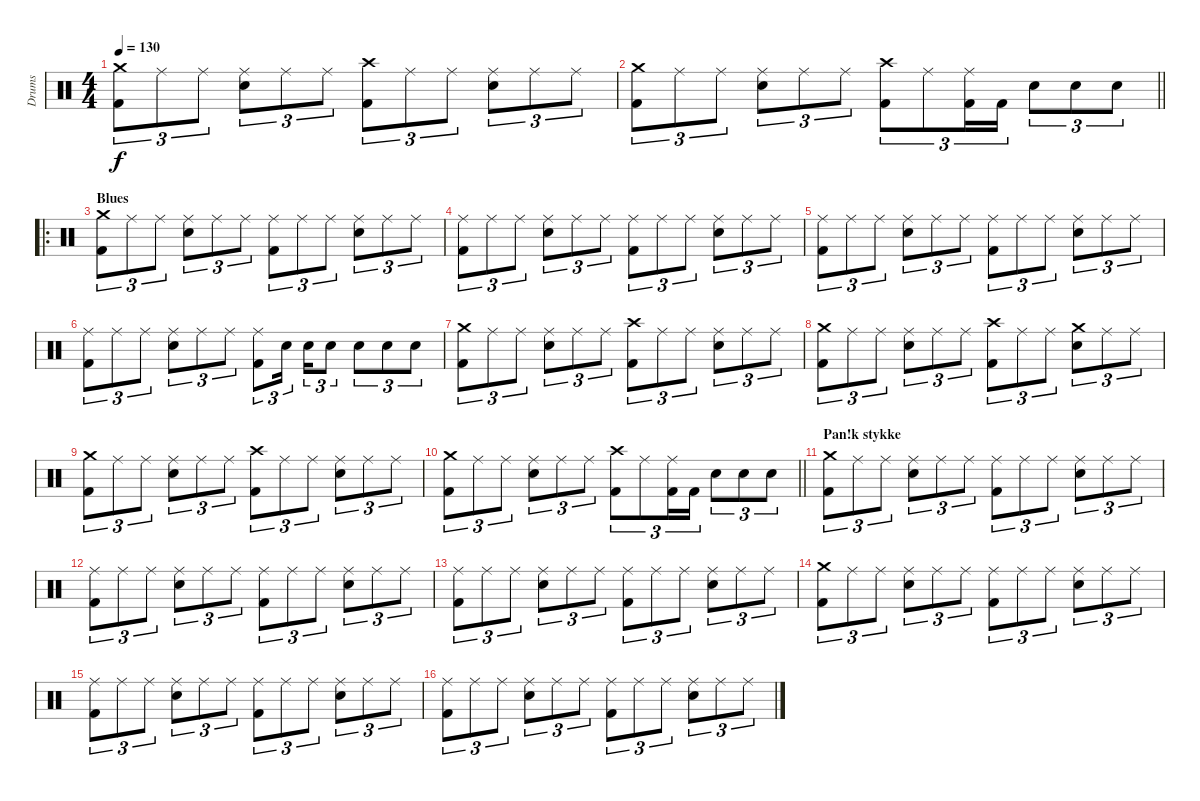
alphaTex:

\track ("Drums" "Drums") {instrument percussion}
\staff {score}
\articulation defaults
\ts (4 4)
\tempo 130
\clef neutral
\ks c
("Crash medium (hit)" "Kick (hit) 2").8{tu (3 2) dy f} "Ride (middle)".8{tu (3 2)} "Ride (middle)".8{tu (3 2)} ("Ride (middle)" "Snare (hit) 2").8{tu (3 2)} "Ride (middle)".8{tu (3 2)} "Ride (middle)".8{tu (3 2)} ("Crash high (hit)" "Kick (hit) 2").8{tu (3 2)} "Ride (middle)".8{tu (3 2)} "Ride (middle)".8{tu (3 2)} ("Ride (middle)" "Snare (hit) 2").8{tu (3 2)} "Ride (middle)".8{tu (3 2)} "Ride (middle)".8{tu (3 2)} |
\barLineRight lightlight
("Crash medium (hit)" "Kick (hit) 2").8{tu (3 2)} "Ride (middle)".8{tu (3 2)} "Ride (middle)".8{tu (3 2)} ("Ride (middle)" "Snare (hit) 2").8{tu (3 2)} "Ride (middle)".8{tu (3 2)} "Ride (middle)".8{tu (3 2)} ("Crash high (hit)" "Kick (hit) 2").8{tu (3 2)} "Ride (middle)".8{tu (3 2)} ("Ride (middle)" "Kick (hit) 2").16{tu (3 2)} "Kick (hit) 2".16{tu (3 2)} "Snare (hit) 2".8{tu (3 2)} "Snare (hit) 2".8{tu (3 2)} "Snare (hit) 2".8{tu (3 2)} |
\ro
\section ("" "Blues")
("Crash medium (hit)" "Kick (hit) 2").8{tu (3 2)} "Ride (middle)".8{tu (3 2)} "Ride (middle)".8{tu (3 2)} ("Ride (middle)" "Snare (hit) 2").8{tu (3 2)} "Ride (middle)".8{tu (3 2)} "Ride (middle)".8{tu (3 2)} ("Ride (middle)" "Kick (hit) 2").8{tu (3 2)} "Ride (middle)".8{tu (3 2)} "Ride (middle)".8{tu (3 2)} ("Ride (middle)" "Snare (hit) 2").8{tu (3 2)} "Ride (middle)".8{tu (3 2)} "Ride (middle)".8{tu (3 2)} |
("Ride (middle)" "Kick (hit) 2").8{tu (3 2)} "Ride (middle)".8{tu (3 2)} "Ride (middle)".8{tu (3 2)} ("Ride (middle)" "Snare (hit) 2").8{tu (3 2)} "Ride (middle)".8{tu (3 2)} "Ride (middle)".8{tu (3 2)} ("Ride (middle)" "Kick (hit) 2").8{tu (3 2)} "Ride (middle)".8{tu (3 2)} "Ride (middle)".8{tu (3 2)} ("Ride (middle)" "Snare (hit) 2").8{tu (3 2)} "Ride (middle)".8{tu (3 2)} "Ride (middle)".8{tu (3 2)} |
("Ride (middle)" "Kick (hit) 2").8{tu (3 2)} "Ride (middle)".8{tu (3 2)} "Ride (middle)".8{tu (3 2)} ("Ride (middle)" "Snare (hit) 2").8{tu (3 2)} "Ride (middle)".8{tu (3 2)} "Ride (middle)".8{tu (3 2)} ("Ride (middle)" "Kick (hit) 2").8{tu (3 2)} "Ride (middle)".8{tu (3 2)} "Ride (middle)".8{tu (3 2)} ("Ride (middle)" "Snare (hit) 2").8{tu (3 2)} "Ride (middle)".8{tu (3 2)} "Ride (middle)".8{tu (3 2)} |
("Ride (middle)" "Kick (hit) 2").8{tu (3 2)} "Ride (middle)".8{tu (3 2)} "Ride (middle)".8{tu (3 2)} ("Ride (middle)" "Snare (hit) 2").8{tu (3 2)} "Ride (middle)".8{tu (3 2)} "Ride (middle)".8{tu (3 2)} ("Ride (middle)" "Kick (hit) 2").8{tu (3 2)} "Snare (hit) 2".16{tu (3 2) beam splitsecondary} "Snare (hit) 2".16{tu (3 2)} "Snare (hit) 2".8{tu (3 2)} "Snare (hit) 2".8{tu (3 2)} "Snare (hit) 2".8{tu (3 2)} "Snare (hit) 2".8{tu (3 2)} |
("Crash medium (hit)" "Kick (hit) 2").8{tu (3 2)} "Ride (middle)".8{tu (3 2)} "Ride (middle)".8{tu (3 2)} ("Ride (middle)" "Snare (hit) 2").8{tu (3 2)} "Ride (middle)".8{tu (3 2)} "Ride (middle)".8{tu (3 2)} ("Crash high (hit)" "Kick (hit) 2").8{tu (3 2)} "Ride (middle)".8{tu (3 2)} "Ride (middle)".8{tu (3 2)} ("Ride (middle)" "Snare (hit) 2").8{tu (3 2)} "Ride (middle)".8{tu (3 2)} "Ride (middle)".8{tu (3 2)} |
("Crash medium (hit)" "Kick (hit) 2").8{tu (3 2)} "Ride (middle)".8{tu (3 2)} "Ride (middle)".8{tu (3 2)} ("Ride (middle)" "Snare (hit) 2").8{tu (3 2)} "Ride (middle)".8{tu (3 2)} "Ride (middle)".8{tu (3 2)} ("Crash high (hit)" "Kick (hit) 2").8{tu (3 2)} "Ride (middle)".8{tu (3 2)} "Ride (middle)".8{tu (3 2)} ("Crash medium (hit)" "Snare (hit) 2").8{tu (3 2)} "Ride (middle)".8{tu (3 2)} "Ride (middle)".8{tu (3 2)} |
("Crash medium (hit)" "Kick (hit) 2").8{tu (3 2)} "Ride (middle)".8{tu (3 2)} "Ride (middle)".8{tu (3 2)} ("Ride (middle)" "Snare (hit) 2").8{tu (3 2)} "Ride (middle)".8{tu (3 2)} "Ride (middle)".8{tu (3 2)} ("Crash high (hit)" "Kick (hit) 2").8{tu (3 2)} "Ride (middle)".8{tu (3 2)} "Ride (middle)".8{tu (3 2)} ("Ride (middle)" "Snare (hit) 2").8{tu (3 2)} "Ride (middle)".8{tu (3 2)} "Ride (middle)".8{tu (3 2)} |
\barLineRight lightlight
("Crash medium (hit)" "Kick (hit) 2").8{tu (3 2)} "Ride (middle)".8{tu (3 2)} "Ride (middle)".8{tu (3 2)} ("Ride (middle)" "Snare (hit) 2").8{tu (3 2)} "Ride (middle)".8{tu (3 2)} "Ride (middle)".8{tu (3 2)} ("Crash high (hit)" "Kick (hit) 2").8{tu (3 2)} "Ride (middle)".8{tu (3 2)} ("Ride (middle)" "Kick (hit) 2").16{tu (3 2)} "Kick (hit) 2".16{tu (3 2)} "Snare (hit) 2".8{tu (3 2)} "Snare (hit) 2".8{tu (3 2)} "Snare (hit) 2".8{tu (3 2)} |
\section ("" "Pan!k stykke")
("Crash medium (hit)" "Kick (hit) 2").8{tu (3 2)} "Ride (middle)".8{tu (3 2)} "Ride (middle)".8{tu (3 2)} ("Ride (middle)" "Snare (hit) 2").8{tu (3 2)} "Ride (middle)".8{tu (3 2)} "Ride (middle)".8{tu (3 2)} ("Ride (middle)" "Kick (hit) 2").8{tu (3 2)} "Ride (middle)".8{tu (3 2)} "Ride (middle)".8{tu (3 2)} ("Ride (middle)" "Snare (hit) 2").8{tu (3 2)} "Ride (middle)".8{tu (3 2)} "Ride (middle)".8{tu (3 2)} |
("Ride (middle)" "Kick (hit) 2").8{tu (3 2)} "Ride (middle)".8{tu (3 2)} "Ride (middle)".8{tu (3 2)} ("Ride (middle)" "Snare (hit) 2").8{tu (3 2)} "Ride (middle)".8{tu (3 2)} "Ride (middle)".8{tu (3 2)} ("Ride (middle)" "Kick (hit) 2").8{tu (3 2)} "Ride (middle)".8{tu (3 2)} "Ride (middle)".8{tu (3 2)} ("Ride (middle)" "Snare (hit) 2").8{tu (3 2)} "Ride (middle)".8{tu (3 2)} "Ride (middle)".8{tu (3 2)} |
("Ride (middle)" "Kick (hit) 2").8{tu (3 2)} "Ride (middle)".8{tu (3 2)} "Ride (middle)".8{tu (3 2)} ("Ride (middle)" "Snare (hit) 2").8{tu (3 2)} "Ride (middle)".8{tu (3 2)} "Ride (middle)".8{tu (3 2)} ("Ride (middle)" "Kick (hit) 2").8{tu (3 2)} "Ride (middle)".8{tu (3 2)} "Ride (middle)".8{tu (3 2)} ("Ride (middle)" "Snare (hit) 2").8{tu (3 2)} "Ride (middle)".8{tu (3 2)} "Ride (middle)".8{tu (3 2)} |
("Crash medium (hit)" "Kick (hit) 2").8{tu (3 2)} "Ride (middle)".8{tu (3 2)} "Ride (middle)".8{tu (3 2)} ("Ride (middle)" "Snare (hit) 2").8{tu (3 2)} "Ride (middle)".8{tu (3 2)} "Ride (middle)".8{tu (3 2)} ("Ride (middle)" "Kick (hit) 2").8{tu (3 2)} "Ride (middle)".8{tu (3 2)} "Ride (middle)".8{tu (3 2)} ("Ride (middle)" "Snare (hit) 2").8{tu (3 2)} "Ride (middle)".8{tu (3 2)} "Ride (middle)".8{tu (3 2)} |
("Ride (middle)" "Kick (hit) 2").8{tu (3 2)} "Ride (middle)".8{tu (3 2)} "Ride (middle)".8{tu (3 2)} ("Ride (middle)" "Snare (hit) 2").8{tu (3 2)} "Ride (middle)".8{tu (3 2)} "Ride (middle)".8{tu (3 2)} ("Ride (middle)" "Kick (hit) 2").8{tu (3 2)} "Ride (middle)".8{tu (3 2)} "Ride (middle)".8{tu (3 2)} ("Ride (middle)" "Snare (hit) 2").8{tu (3 2)} "Ride (middle)".8{tu (3 2)} "Ride (middle)".8{tu (3 2)} |
("Ride (middle)" "Kick (hit) 2").8{tu (3 2)} "Ride (middle)".8{tu (3 2)} "Ride (middle)".8{tu (3 2)} ("Ride (middle)" "Snare (hit) 2").8{tu (3 2)} "Ride (middle)".8{tu (3 2)} "Ride (middle)".8{tu (3 2)} ("Ride (middle)" "Kick (hit) 2").8{tu (3 2)} "Ride (middle)".8{tu (3 2)} "Ride (middle)".8{tu (3 2)} ("Ride (middle)" "Snare (hit) 2").8{tu (3 2)} "Ride (middle)".8{tu (3 2)} "Ride (middle)".8{tu (3 2)}
